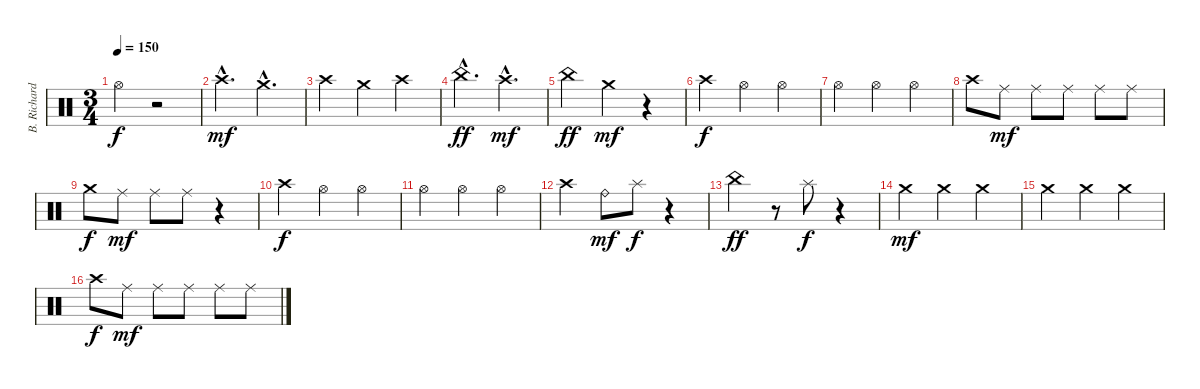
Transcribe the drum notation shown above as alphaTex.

\track ("B. Richardson Drums" "B. Richard") {instrument percussion}
\staff {score}
\articulation defaults
\ts (3 4)
\tempo 150
\clef neutral
\ks c "Hi-Hat (open)".4{dy f}
r.2 |
"Crash high (hit)"{hac}.4{d dy mf} "Crash medium (hit)"{hac}.4{d} |
"Crash high (hit)".4 "Crash medium (hit)".4 "Crash high (hit)".4 |
"China (hit)"{hac}.4{d dy ff} "Crash high (hit)"{hac}.4{d dy mf} |
"China (hit)".4{dy ff} "Crash medium (hit)".4{dy mf} r.4 |
"Crash high (hit)".4{dy f} "Hi-Hat (open)".4 "Hi-Hat (open)".4 |
"Hi-Hat (open)".4 "Hi-Hat (open)".4 "Hi-Hat (open)".4 |
"Crash high (hit)".8 "Ride (middle)".8{dy mf} "Ride (middle)".8 "Ride (middle)".8 "Ride (middle)".8 "Ride (middle)".8 |
"Crash medium (hit)".8{dy f} "Ride (middle)".8{dy mf} "Ride (middle)".8 "Ride (middle)".8 r.4 |
"Crash high (hit)".4{dy f} "Hi-Hat (open)".4 "Hi-Hat (open)".4 |
"Hi-Hat (open)".4 "Hi-Hat (open)".4 "Hi-Hat (open)".4 |
"Crash high (hit)".4 "Ride (bell)".8{dy mf} "Splash (hit)".8{dy f} r.4 |
"China (hit)".4{dy ff} r.8 "Splash (hit)".8{dy f} r.4 |
"Crash medium (hit)".4{dy mf} "Crash medium (hit)".4 "Crash medium (hit)".4 |
"Crash medium (hit)".4 "Crash medium (hit)".4 "Crash medium (hit)".4 |
"Crash high (hit)".8{dy f} "Ride (middle)".8{dy mf} "Ride (middle)".8 "Ride (middle)".8 "Ride (middle)".8 "Ride (middle)".8
